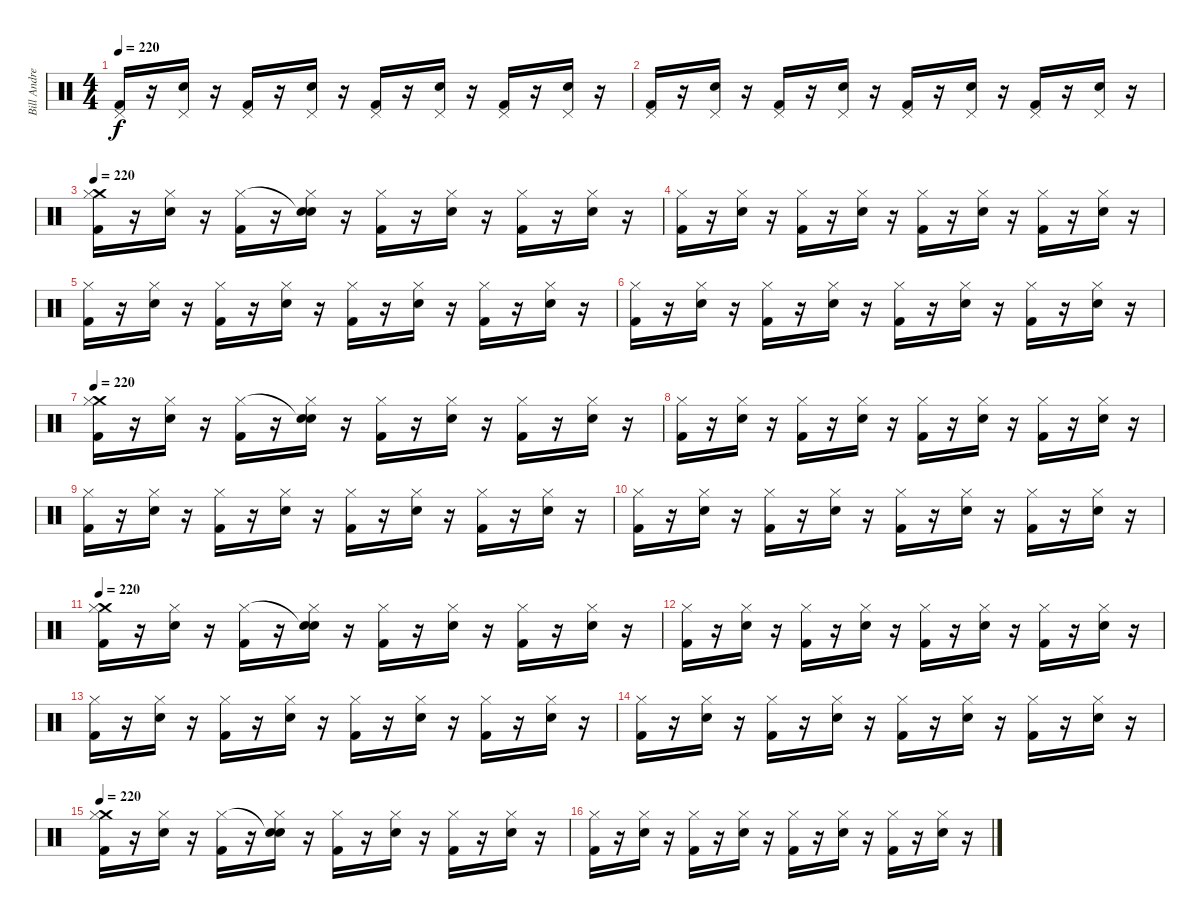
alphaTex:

\track ("Bill Andrews" "Bill Andre") {instrument percussion}
\staff {score}
\articulation defaults
\ts (4 4)
\tempo 220
\clef neutral
\ks c
("Pedal Hi-Hat (hit)" "Kick (hit) 2").16{dy f} r.16 ("Pedal Hi-Hat (hit)" "Snare (hit) 2").16 r.16 ("Pedal Hi-Hat (hit)" "Kick (hit) 2").16 r.16 ("Pedal Hi-Hat (hit)" "Snare (hit) 2").16 r.16 ("Pedal Hi-Hat (hit)" "Kick (hit) 2").16 r.16 ("Pedal Hi-Hat (hit)" "Snare (hit) 2").16 r.16 ("Pedal Hi-Hat (hit)" "Kick (hit) 2").16 r.16 ("Pedal Hi-Hat (hit)" "Snare (hit) 2").16 r.16 |
("Pedal Hi-Hat (hit)" "Kick (hit) 2").16 r.16 ("Pedal Hi-Hat (hit)" "Snare (hit) 2").16 r.16 ("Pedal Hi-Hat (hit)" "Kick (hit) 2").16 r.16 ("Pedal Hi-Hat (hit)" "Snare (hit) 2").16 r.16 ("Pedal Hi-Hat (hit)" "Kick (hit) 2").16 r.16 ("Pedal Hi-Hat (hit)" "Snare (hit) 2").16 r.16 ("Pedal Hi-Hat (hit)" "Kick (hit) 2").16 r.16 ("Pedal Hi-Hat (hit)" "Snare (hit) 2").16 r.16 |
\tempo 220
("Crash medium (hit)" "Hi-Hat (closed)" "Kick (hit) 2").16 r.16 ("Hi-Hat (closed)" "Snare (hit) 2").16 r.16 ("Hi-Hat (closed)" "Kick (hit) 2").16 r.16 ("Snare (hit)"{t} "Hi-Hat (closed)" "Snare (hit) 2").16 r.16 ("Hi-Hat (closed)" "Kick (hit) 2").16 r.16 ("Hi-Hat (closed)" "Snare (hit) 2").16 r.16 ("Hi-Hat (closed)" "Kick (hit) 2").16 r.16 ("Hi-Hat (closed)" "Snare (hit) 2").16 r.16 |
("Hi-Hat (closed)" "Kick (hit) 2").16 r.16 ("Hi-Hat (closed)" "Snare (hit) 2").16 r.16 ("Hi-Hat (closed)" "Kick (hit) 2").16 r.16 ("Hi-Hat (closed)" "Snare (hit) 2").16 r.16 ("Hi-Hat (closed)" "Kick (hit) 2").16 r.16 ("Hi-Hat (closed)" "Snare (hit) 2").16 r.16 ("Hi-Hat (closed)" "Kick (hit) 2").16 r.16 ("Hi-Hat (closed)" "Snare (hit) 2").16 r.16 |
("Hi-Hat (closed)" "Kick (hit) 2").16 r.16 ("Hi-Hat (closed)" "Snare (hit) 2").16 r.16 ("Hi-Hat (closed)" "Kick (hit) 2").16 r.16 ("Hi-Hat (closed)" "Snare (hit) 2").16 r.16 ("Hi-Hat (closed)" "Kick (hit) 2").16 r.16 ("Hi-Hat (closed)" "Snare (hit) 2").16 r.16 ("Hi-Hat (closed)" "Kick (hit) 2").16 r.16 ("Hi-Hat (closed)" "Snare (hit) 2").16 r.16 |
("Hi-Hat (closed)" "Kick (hit) 2").16 r.16 ("Hi-Hat (closed)" "Snare (hit) 2").16 r.16 ("Hi-Hat (closed)" "Kick (hit) 2").16 r.16 ("Hi-Hat (closed)" "Snare (hit) 2").16 r.16 ("Hi-Hat (closed)" "Kick (hit) 2").16 r.16 ("Hi-Hat (closed)" "Snare (hit) 2").16 r.16 ("Hi-Hat (closed)" "Kick (hit) 2").16 r.16 ("Hi-Hat (closed)" "Snare (hit) 2").16 r.16 |
\tempo 220
("Crash medium (hit)" "Hi-Hat (closed)" "Kick (hit) 2").16 r.16 ("Hi-Hat (closed)" "Snare (hit) 2").16 r.16 ("Hi-Hat (closed)" "Kick (hit) 2").16 r.16 ("Snare (hit)"{t} "Hi-Hat (closed)" "Snare (hit) 2").16 r.16 ("Hi-Hat (closed)" "Kick (hit) 2").16 r.16 ("Hi-Hat (closed)" "Snare (hit) 2").16 r.16 ("Hi-Hat (closed)" "Kick (hit) 2").16 r.16 ("Hi-Hat (closed)" "Snare (hit) 2").16 r.16 |
("Hi-Hat (closed)" "Kick (hit) 2").16 r.16 ("Hi-Hat (closed)" "Snare (hit) 2").16 r.16 ("Hi-Hat (closed)" "Kick (hit) 2").16 r.16 ("Hi-Hat (closed)" "Snare (hit) 2").16 r.16 ("Hi-Hat (closed)" "Kick (hit) 2").16 r.16 ("Hi-Hat (closed)" "Snare (hit) 2").16 r.16 ("Hi-Hat (closed)" "Kick (hit) 2").16 r.16 ("Hi-Hat (closed)" "Snare (hit) 2").16 r.16 |
("Hi-Hat (closed)" "Kick (hit) 2").16 r.16 ("Hi-Hat (closed)" "Snare (hit) 2").16 r.16 ("Hi-Hat (closed)" "Kick (hit) 2").16 r.16 ("Hi-Hat (closed)" "Snare (hit) 2").16 r.16 ("Hi-Hat (closed)" "Kick (hit) 2").16 r.16 ("Hi-Hat (closed)" "Snare (hit) 2").16 r.16 ("Hi-Hat (closed)" "Kick (hit) 2").16 r.16 ("Hi-Hat (closed)" "Snare (hit) 2").16 r.16 |
("Hi-Hat (closed)" "Kick (hit) 2").16 r.16 ("Hi-Hat (closed)" "Snare (hit) 2").16 r.16 ("Hi-Hat (closed)" "Kick (hit) 2").16 r.16 ("Hi-Hat (closed)" "Snare (hit) 2").16 r.16 ("Hi-Hat (closed)" "Kick (hit) 2").16 r.16 ("Hi-Hat (closed)" "Snare (hit) 2").16 r.16 ("Hi-Hat (closed)" "Kick (hit) 2").16 r.16 ("Hi-Hat (closed)" "Snare (hit) 2").16 r.16 |
\tempo 220
("Crash medium (hit)" "Hi-Hat (closed)" "Kick (hit) 2").16 r.16 ("Hi-Hat (closed)" "Snare (hit) 2").16 r.16 ("Hi-Hat (closed)" "Kick (hit) 2").16 r.16 ("Snare (hit)"{t} "Hi-Hat (closed)" "Snare (hit) 2").16 r.16 ("Hi-Hat (closed)" "Kick (hit) 2").16 r.16 ("Hi-Hat (closed)" "Snare (hit) 2").16 r.16 ("Hi-Hat (closed)" "Kick (hit) 2").16 r.16 ("Hi-Hat (closed)" "Snare (hit) 2").16 r.16 |
("Hi-Hat (closed)" "Kick (hit) 2").16 r.16 ("Hi-Hat (closed)" "Snare (hit) 2").16 r.16 ("Hi-Hat (closed)" "Kick (hit) 2").16 r.16 ("Hi-Hat (closed)" "Snare (hit) 2").16 r.16 ("Hi-Hat (closed)" "Kick (hit) 2").16 r.16 ("Hi-Hat (closed)" "Snare (hit) 2").16 r.16 ("Hi-Hat (closed)" "Kick (hit) 2").16 r.16 ("Hi-Hat (closed)" "Snare (hit) 2").16 r.16 |
("Hi-Hat (closed)" "Kick (hit) 2").16 r.16 ("Hi-Hat (closed)" "Snare (hit) 2").16 r.16 ("Hi-Hat (closed)" "Kick (hit) 2").16 r.16 ("Hi-Hat (closed)" "Snare (hit) 2").16 r.16 ("Hi-Hat (closed)" "Kick (hit) 2").16 r.16 ("Hi-Hat (closed)" "Snare (hit) 2").16 r.16 ("Hi-Hat (closed)" "Kick (hit) 2").16 r.16 ("Hi-Hat (closed)" "Snare (hit) 2").16 r.16 |
("Hi-Hat (closed)" "Kick (hit) 2").16 r.16 ("Hi-Hat (closed)" "Snare (hit) 2").16 r.16 ("Hi-Hat (closed)" "Kick (hit) 2").16 r.16 ("Hi-Hat (closed)" "Snare (hit) 2").16 r.16 ("Hi-Hat (closed)" "Kick (hit) 2").16 r.16 ("Hi-Hat (closed)" "Snare (hit) 2").16 r.16 ("Hi-Hat (closed)" "Kick (hit) 2").16 r.16 ("Hi-Hat (closed)" "Snare (hit) 2").16 r.16 |
\tempo 220
("Crash medium (hit)" "Hi-Hat (closed)" "Kick (hit) 2").16 r.16 ("Hi-Hat (closed)" "Snare (hit) 2").16 r.16 ("Hi-Hat (closed)" "Kick (hit) 2").16 r.16 ("Snare (hit)"{t} "Hi-Hat (closed)" "Snare (hit) 2").16 r.16 ("Hi-Hat (closed)" "Kick (hit) 2").16 r.16 ("Hi-Hat (closed)" "Snare (hit) 2").16 r.16 ("Hi-Hat (closed)" "Kick (hit) 2").16 r.16 ("Hi-Hat (closed)" "Snare (hit) 2").16 r.16 |
("Hi-Hat (closed)" "Kick (hit) 2").16 r.16 ("Hi-Hat (closed)" "Snare (hit) 2").16 r.16 ("Hi-Hat (closed)" "Kick (hit) 2").16 r.16 ("Hi-Hat (closed)" "Snare (hit) 2").16 r.16 ("Hi-Hat (closed)" "Kick (hit) 2").16 r.16 ("Hi-Hat (closed)" "Snare (hit) 2").16 r.16 ("Hi-Hat (closed)" "Kick (hit) 2").16 r.16 ("Hi-Hat (closed)" "Snare (hit) 2").16 r.16
